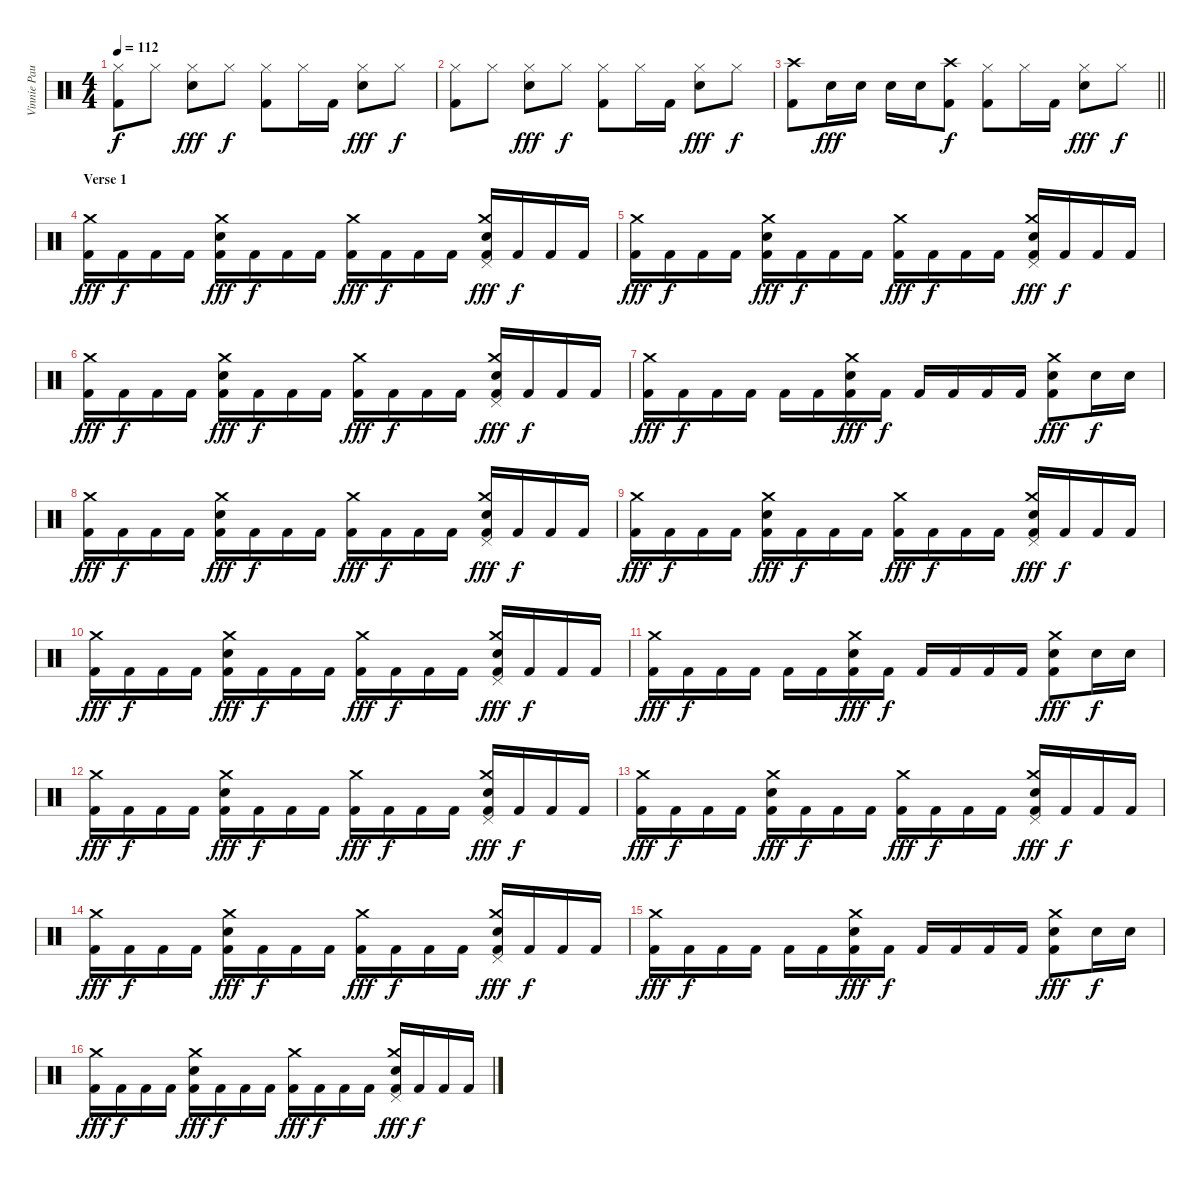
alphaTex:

\track ("Vinnie Paul" "Vinnie Pau") {instrument percussion}
\staff {score}
\articulation defaults
\ts (4 4)
\tempo 112
\clef neutral
\ks c
("Hi-Hat (closed)" "Kick (hit) 2").8{dy f} "Hi-Hat (closed)".8 ("Hi-Hat (closed)" "Electric Snare (hit)").8{dy fff} "Hi-Hat (closed)".8{dy f} ("Hi-Hat (closed)" "Kick (hit) 2").8 "Hi-Hat (closed)".16 "Kick (hit) 2".16 ("Hi-Hat (closed)" "Electric Snare (hit)").8{dy fff} "Hi-Hat (closed)".8{dy f} |
("Hi-Hat (closed)" "Kick (hit) 2").8 "Hi-Hat (closed)".8 ("Hi-Hat (closed)" "Electric Snare (hit)").8{dy fff} "Hi-Hat (closed)".8{dy f} ("Hi-Hat (closed)" "Kick (hit) 2").8 "Hi-Hat (closed)".16 "Kick (hit) 2".16 ("Hi-Hat (closed)" "Electric Snare (hit)").8{dy fff} "Hi-Hat (closed)".8{dy f} |
\barLineRight lightlight
("Crash high (hit)" "Kick (hit) 2").8 "Electric Snare (hit)".16{dy fff} "Electric Snare (hit)".16 "Electric Snare (hit)".16 "Electric Snare (hit)".16 ("Crash high (hit)" "Kick (hit) 2").8{dy f} ("Hi-Hat (closed)" "Kick (hit) 2").8 "Hi-Hat (closed)".16 "Kick (hit) 2".16 ("Hi-Hat (closed)" "Electric Snare (hit)").8{dy fff} "Hi-Hat (closed)".8{dy f} |
\section ("" "Verse 1")
("Crash medium (hit)" "Kick (hit) 2").16{dy fff} "Kick (hit) 2".16{dy f} "Kick (hit) 2".16 "Kick (hit) 2".16 ("Crash medium (hit)" "Electric Snare (hit)" "Kick (hit) 2").16{dy fff} "Kick (hit) 2".16{dy f} "Kick (hit) 2".16 "Kick (hit) 2".16 ("Crash medium (hit)" "Kick (hit) 2").16{dy fff} "Kick (hit) 2".16{dy f} "Kick (hit) 2".16 "Kick (hit) 2".16 ("Crash medium (hit)" "Pedal Hi-Hat (hit)" "Electric Snare (hit)" "Kick (hit) 2").16{dy fff} "Kick (hit) 2".16{dy f} "Kick (hit) 2".16 "Kick (hit) 2".16 |
("Crash medium (hit)" "Kick (hit) 2").16{dy fff} "Kick (hit) 2".16{dy f} "Kick (hit) 2".16 "Kick (hit) 2".16 ("Crash medium (hit)" "Electric Snare (hit)" "Kick (hit) 2").16{dy fff} "Kick (hit) 2".16{dy f} "Kick (hit) 2".16 "Kick (hit) 2".16 ("Crash medium (hit)" "Kick (hit) 2").16{dy fff} "Kick (hit) 2".16{dy f} "Kick (hit) 2".16 "Kick (hit) 2".16 ("Crash medium (hit)" "Pedal Hi-Hat (hit)" "Electric Snare (hit)" "Kick (hit) 2").16{dy fff} "Kick (hit) 2".16{dy f} "Kick (hit) 2".16 "Kick (hit) 2".16 |
("Crash medium (hit)" "Kick (hit) 2").16{dy fff} "Kick (hit) 2".16{dy f} "Kick (hit) 2".16 "Kick (hit) 2".16 ("Crash medium (hit)" "Electric Snare (hit)" "Kick (hit) 2").16{dy fff} "Kick (hit) 2".16{dy f} "Kick (hit) 2".16 "Kick (hit) 2".16 ("Crash medium (hit)" "Kick (hit) 2").16{dy fff} "Kick (hit) 2".16{dy f} "Kick (hit) 2".16 "Kick (hit) 2".16 ("Crash medium (hit)" "Pedal Hi-Hat (hit)" "Electric Snare (hit)" "Kick (hit) 2").16{dy fff} "Kick (hit) 2".16{dy f} "Kick (hit) 2".16 "Kick (hit) 2".16 |
("Crash medium (hit)" "Kick (hit) 2").16{dy fff} "Kick (hit) 2".16{dy f} "Kick (hit) 2".16 "Kick (hit) 2".16 "Kick (hit) 2".16 "Kick (hit) 2".16 ("Crash medium (hit)" "Electric Snare (hit)" "Kick (hit) 2").16{dy fff} "Kick (hit) 2".16{dy f} "Kick (hit) 2".16 "Kick (hit) 2".16 "Kick (hit) 2".16 "Kick (hit) 2".16 ("Crash medium (hit)" "Electric Snare (hit)" "Kick (hit) 2").8{dy fff} "Electric Snare (hit)".16{dy f} "Electric Snare (hit)".16 |
("Crash medium (hit)" "Kick (hit) 2").16{dy fff} "Kick (hit) 2".16{dy f} "Kick (hit) 2".16 "Kick (hit) 2".16 ("Crash medium (hit)" "Electric Snare (hit)" "Kick (hit) 2").16{dy fff} "Kick (hit) 2".16{dy f} "Kick (hit) 2".16 "Kick (hit) 2".16 ("Crash medium (hit)" "Kick (hit) 2").16{dy fff} "Kick (hit) 2".16{dy f} "Kick (hit) 2".16 "Kick (hit) 2".16 ("Crash medium (hit)" "Pedal Hi-Hat (hit)" "Electric Snare (hit)" "Kick (hit) 2").16{dy fff} "Kick (hit) 2".16{dy f} "Kick (hit) 2".16 "Kick (hit) 2".16 |
("Crash medium (hit)" "Kick (hit) 2").16{dy fff} "Kick (hit) 2".16{dy f} "Kick (hit) 2".16 "Kick (hit) 2".16 ("Crash medium (hit)" "Electric Snare (hit)" "Kick (hit) 2").16{dy fff} "Kick (hit) 2".16{dy f} "Kick (hit) 2".16 "Kick (hit) 2".16 ("Crash medium (hit)" "Kick (hit) 2").16{dy fff} "Kick (hit) 2".16{dy f} "Kick (hit) 2".16 "Kick (hit) 2".16 ("Crash medium (hit)" "Pedal Hi-Hat (hit)" "Electric Snare (hit)" "Kick (hit) 2").16{dy fff} "Kick (hit) 2".16{dy f} "Kick (hit) 2".16 "Kick (hit) 2".16 |
("Crash medium (hit)" "Kick (hit) 2").16{dy fff} "Kick (hit) 2".16{dy f} "Kick (hit) 2".16 "Kick (hit) 2".16 ("Crash medium (hit)" "Electric Snare (hit)" "Kick (hit) 2").16{dy fff} "Kick (hit) 2".16{dy f} "Kick (hit) 2".16 "Kick (hit) 2".16 ("Crash medium (hit)" "Kick (hit) 2").16{dy fff} "Kick (hit) 2".16{dy f} "Kick (hit) 2".16 "Kick (hit) 2".16 ("Crash medium (hit)" "Pedal Hi-Hat (hit)" "Electric Snare (hit)" "Kick (hit) 2").16{dy fff} "Kick (hit) 2".16{dy f} "Kick (hit) 2".16 "Kick (hit) 2".16 |
("Crash medium (hit)" "Kick (hit) 2").16{dy fff} "Kick (hit) 2".16{dy f} "Kick (hit) 2".16 "Kick (hit) 2".16 "Kick (hit) 2".16 "Kick (hit) 2".16 ("Crash medium (hit)" "Electric Snare (hit)" "Kick (hit) 2").16{dy fff} "Kick (hit) 2".16{dy f} "Kick (hit) 2".16 "Kick (hit) 2".16 "Kick (hit) 2".16 "Kick (hit) 2".16 ("Crash medium (hit)" "Electric Snare (hit)" "Kick (hit) 2").8{dy fff} "Electric Snare (hit)".16{dy f} "Electric Snare (hit)".16 |
("Crash medium (hit)" "Kick (hit) 2").16{dy fff} "Kick (hit) 2".16{dy f} "Kick (hit) 2".16 "Kick (hit) 2".16 ("Crash medium (hit)" "Electric Snare (hit)" "Kick (hit) 2").16{dy fff} "Kick (hit) 2".16{dy f} "Kick (hit) 2".16 "Kick (hit) 2".16 ("Crash medium (hit)" "Kick (hit) 2").16{dy fff} "Kick (hit) 2".16{dy f} "Kick (hit) 2".16 "Kick (hit) 2".16 ("Crash medium (hit)" "Pedal Hi-Hat (hit)" "Electric Snare (hit)" "Kick (hit) 2").16{dy fff} "Kick (hit) 2".16{dy f} "Kick (hit) 2".16 "Kick (hit) 2".16 |
("Crash medium (hit)" "Kick (hit) 2").16{dy fff} "Kick (hit) 2".16{dy f} "Kick (hit) 2".16 "Kick (hit) 2".16 ("Crash medium (hit)" "Electric Snare (hit)" "Kick (hit) 2").16{dy fff} "Kick (hit) 2".16{dy f} "Kick (hit) 2".16 "Kick (hit) 2".16 ("Crash medium (hit)" "Kick (hit) 2").16{dy fff} "Kick (hit) 2".16{dy f} "Kick (hit) 2".16 "Kick (hit) 2".16 ("Crash medium (hit)" "Pedal Hi-Hat (hit)" "Electric Snare (hit)" "Kick (hit) 2").16{dy fff} "Kick (hit) 2".16{dy f} "Kick (hit) 2".16 "Kick (hit) 2".16 |
("Crash medium (hit)" "Kick (hit) 2").16{dy fff} "Kick (hit) 2".16{dy f} "Kick (hit) 2".16 "Kick (hit) 2".16 ("Crash medium (hit)" "Electric Snare (hit)" "Kick (hit) 2").16{dy fff} "Kick (hit) 2".16{dy f} "Kick (hit) 2".16 "Kick (hit) 2".16 ("Crash medium (hit)" "Kick (hit) 2").16{dy fff} "Kick (hit) 2".16{dy f} "Kick (hit) 2".16 "Kick (hit) 2".16 ("Crash medium (hit)" "Pedal Hi-Hat (hit)" "Electric Snare (hit)" "Kick (hit) 2").16{dy fff} "Kick (hit) 2".16{dy f} "Kick (hit) 2".16 "Kick (hit) 2".16 |
("Crash medium (hit)" "Kick (hit) 2").16{dy fff} "Kick (hit) 2".16{dy f} "Kick (hit) 2".16 "Kick (hit) 2".16 "Kick (hit) 2".16 "Kick (hit) 2".16 ("Crash medium (hit)" "Electric Snare (hit)" "Kick (hit) 2").16{dy fff} "Kick (hit) 2".16{dy f} "Kick (hit) 2".16 "Kick (hit) 2".16 "Kick (hit) 2".16 "Kick (hit) 2".16 ("Crash medium (hit)" "Electric Snare (hit)" "Kick (hit) 2").8{dy fff} "Electric Snare (hit)".16{dy f} "Electric Snare (hit)".16 |
("Crash medium (hit)" "Kick (hit) 2").16{dy fff} "Kick (hit) 2".16{dy f} "Kick (hit) 2".16 "Kick (hit) 2".16 ("Crash medium (hit)" "Electric Snare (hit)" "Kick (hit) 2").16{dy fff} "Kick (hit) 2".16{dy f} "Kick (hit) 2".16 "Kick (hit) 2".16 ("Crash medium (hit)" "Kick (hit) 2").16{dy fff} "Kick (hit) 2".16{dy f} "Kick (hit) 2".16 "Kick (hit) 2".16 ("Crash medium (hit)" "Pedal Hi-Hat (hit)" "Electric Snare (hit)" "Kick (hit) 2").16{dy fff} "Kick (hit) 2".16{dy f} "Kick (hit) 2".16 "Kick (hit) 2".16
